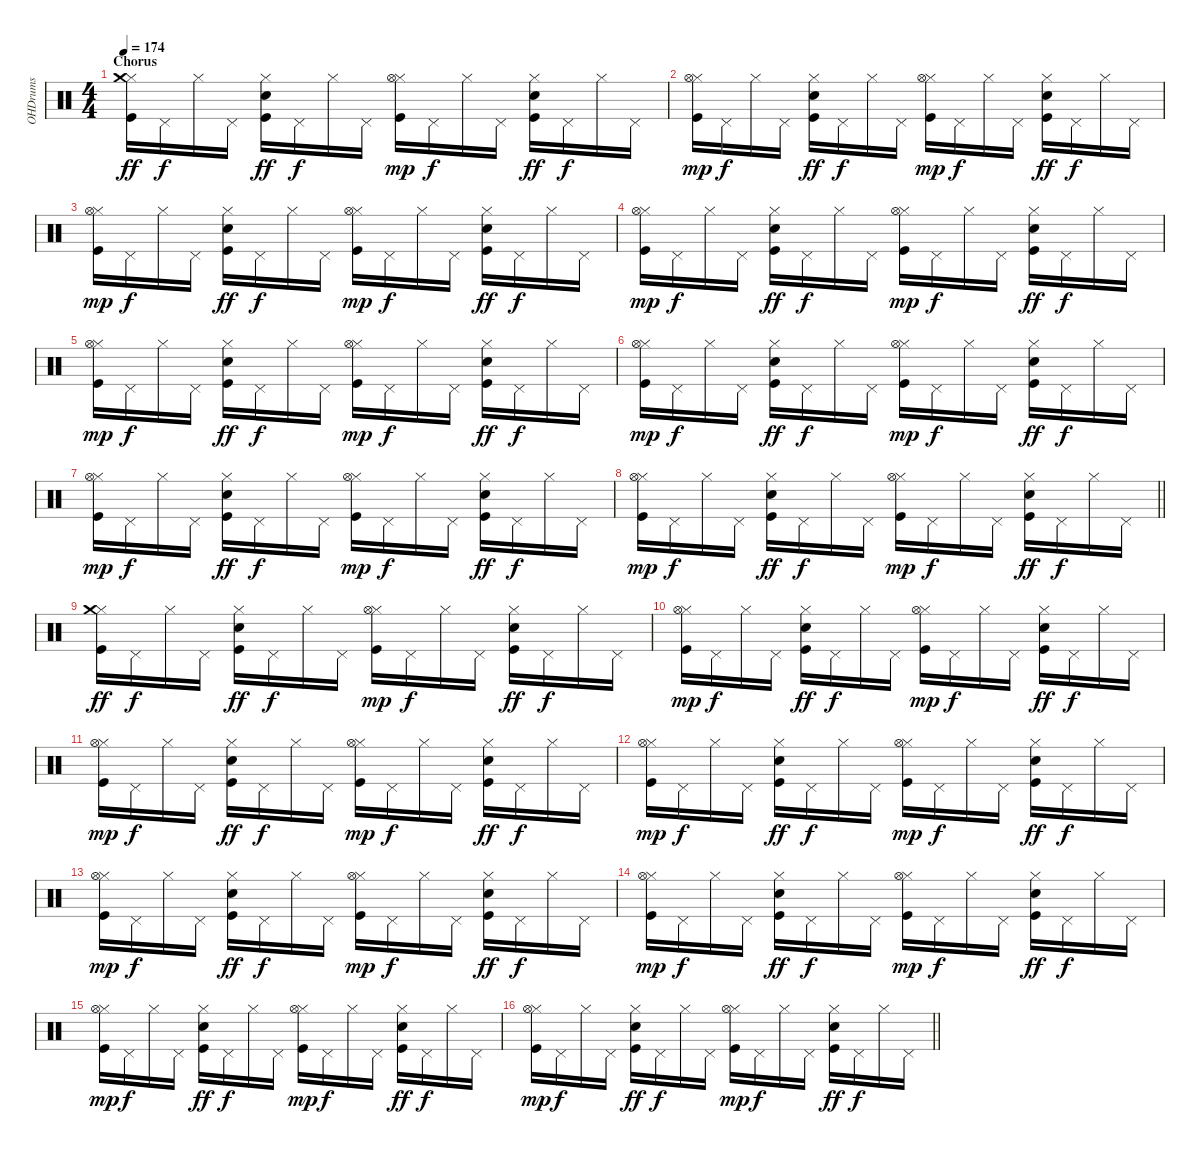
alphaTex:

\track ("OHDrums" "OHDrums") {instrument percussion}
\staff {score}
\articulation defaults
\ts (4 4)
\section ("" "Chorus")
\tempo 174
\clef neutral
\ks c
("Kick (hit)" "Hi-Hat (closed)" "Crash medium (hit)").16{dy ff} "Pedal Hi-Hat (hit)".16{dy f} "Hi-Hat (closed)".16 "Pedal Hi-Hat (hit)".16 ("Kick (hit)" "Electric Snare (hit)" "Hi-Hat (closed)").16{dy ff} "Pedal Hi-Hat (hit)".16{dy f} "Hi-Hat (closed)".16 "Pedal Hi-Hat (hit)".16 ("Kick (hit)" "Hi-Hat (closed)" "Hi-Hat (open)").16{dy mp} "Pedal Hi-Hat (hit)".16{dy f} "Hi-Hat (closed)".16 "Pedal Hi-Hat (hit)".16 ("Kick (hit)" "Electric Snare (hit)" "Hi-Hat (closed)").16{dy ff} "Pedal Hi-Hat (hit)".16{dy f} "Hi-Hat (closed)".16 "Pedal Hi-Hat (hit)".16 |
("Kick (hit)" "Hi-Hat (closed)" "Hi-Hat (open)").16{dy mp} "Pedal Hi-Hat (hit)".16{dy f} "Hi-Hat (closed)".16 "Pedal Hi-Hat (hit)".16 ("Kick (hit)" "Electric Snare (hit)" "Hi-Hat (closed)").16{dy ff} "Pedal Hi-Hat (hit)".16{dy f} "Hi-Hat (closed)".16 "Pedal Hi-Hat (hit)".16 ("Kick (hit)" "Hi-Hat (closed)" "Hi-Hat (open)").16{dy mp} "Pedal Hi-Hat (hit)".16{dy f} "Hi-Hat (closed)".16 "Pedal Hi-Hat (hit)".16 ("Kick (hit)" "Electric Snare (hit)" "Hi-Hat (closed)").16{dy ff} "Pedal Hi-Hat (hit)".16{dy f} "Hi-Hat (closed)".16 "Pedal Hi-Hat (hit)".16 |
("Kick (hit)" "Hi-Hat (closed)" "Hi-Hat (open)").16{dy mp} "Pedal Hi-Hat (hit)".16{dy f} "Hi-Hat (closed)".16 "Pedal Hi-Hat (hit)".16 ("Kick (hit)" "Electric Snare (hit)" "Hi-Hat (closed)").16{dy ff} "Pedal Hi-Hat (hit)".16{dy f} "Hi-Hat (closed)".16 "Pedal Hi-Hat (hit)".16 ("Kick (hit)" "Hi-Hat (closed)" "Hi-Hat (open)").16{dy mp} "Pedal Hi-Hat (hit)".16{dy f} "Hi-Hat (closed)".16 "Pedal Hi-Hat (hit)".16 ("Kick (hit)" "Electric Snare (hit)" "Hi-Hat (closed)").16{dy ff} "Pedal Hi-Hat (hit)".16{dy f} "Hi-Hat (closed)".16 "Pedal Hi-Hat (hit)".16 |
("Kick (hit)" "Hi-Hat (closed)" "Hi-Hat (open)").16{dy mp} "Pedal Hi-Hat (hit)".16{dy f} "Hi-Hat (closed)".16 "Pedal Hi-Hat (hit)".16 ("Kick (hit)" "Electric Snare (hit)" "Hi-Hat (closed)").16{dy ff} "Pedal Hi-Hat (hit)".16{dy f} "Hi-Hat (closed)".16 "Pedal Hi-Hat (hit)".16 ("Kick (hit)" "Hi-Hat (closed)" "Hi-Hat (open)").16{dy mp} "Pedal Hi-Hat (hit)".16{dy f} "Hi-Hat (closed)".16 "Pedal Hi-Hat (hit)".16 ("Kick (hit)" "Electric Snare (hit)" "Hi-Hat (closed)").16{dy ff} "Pedal Hi-Hat (hit)".16{dy f} "Hi-Hat (closed)".16 "Pedal Hi-Hat (hit)".16 |
("Kick (hit)" "Hi-Hat (closed)" "Hi-Hat (open)").16{dy mp} "Pedal Hi-Hat (hit)".16{dy f} "Hi-Hat (closed)".16 "Pedal Hi-Hat (hit)".16 ("Kick (hit)" "Electric Snare (hit)" "Hi-Hat (closed)").16{dy ff} "Pedal Hi-Hat (hit)".16{dy f} "Hi-Hat (closed)".16 "Pedal Hi-Hat (hit)".16 ("Kick (hit)" "Hi-Hat (closed)" "Hi-Hat (open)").16{dy mp} "Pedal Hi-Hat (hit)".16{dy f} "Hi-Hat (closed)".16 "Pedal Hi-Hat (hit)".16 ("Kick (hit)" "Electric Snare (hit)" "Hi-Hat (closed)").16{dy ff} "Pedal Hi-Hat (hit)".16{dy f} "Hi-Hat (closed)".16 "Pedal Hi-Hat (hit)".16 |
("Kick (hit)" "Hi-Hat (closed)" "Hi-Hat (open)").16{dy mp} "Pedal Hi-Hat (hit)".16{dy f} "Hi-Hat (closed)".16 "Pedal Hi-Hat (hit)".16 ("Kick (hit)" "Electric Snare (hit)" "Hi-Hat (closed)").16{dy ff} "Pedal Hi-Hat (hit)".16{dy f} "Hi-Hat (closed)".16 "Pedal Hi-Hat (hit)".16 ("Kick (hit)" "Hi-Hat (closed)" "Hi-Hat (open)").16{dy mp} "Pedal Hi-Hat (hit)".16{dy f} "Hi-Hat (closed)".16 "Pedal Hi-Hat (hit)".16 ("Kick (hit)" "Electric Snare (hit)" "Hi-Hat (closed)").16{dy ff} "Pedal Hi-Hat (hit)".16{dy f} "Hi-Hat (closed)".16 "Pedal Hi-Hat (hit)".16 |
("Kick (hit)" "Hi-Hat (closed)" "Hi-Hat (open)").16{dy mp} "Pedal Hi-Hat (hit)".16{dy f} "Hi-Hat (closed)".16 "Pedal Hi-Hat (hit)".16 ("Kick (hit)" "Electric Snare (hit)" "Hi-Hat (closed)").16{dy ff} "Pedal Hi-Hat (hit)".16{dy f} "Hi-Hat (closed)".16 "Pedal Hi-Hat (hit)".16 ("Kick (hit)" "Hi-Hat (closed)" "Hi-Hat (open)").16{dy mp} "Pedal Hi-Hat (hit)".16{dy f} "Hi-Hat (closed)".16 "Pedal Hi-Hat (hit)".16 ("Kick (hit)" "Electric Snare (hit)" "Hi-Hat (closed)").16{dy ff} "Pedal Hi-Hat (hit)".16{dy f} "Hi-Hat (closed)".16 "Pedal Hi-Hat (hit)".16 |
\barLineRight lightlight
("Kick (hit)" "Hi-Hat (closed)" "Hi-Hat (open)").16{dy mp} "Pedal Hi-Hat (hit)".16{dy f} "Hi-Hat (closed)".16 "Pedal Hi-Hat (hit)".16 ("Kick (hit)" "Electric Snare (hit)" "Hi-Hat (closed)").16{dy ff} "Pedal Hi-Hat (hit)".16{dy f} "Hi-Hat (closed)".16 "Pedal Hi-Hat (hit)".16 ("Kick (hit)" "Hi-Hat (closed)" "Hi-Hat (open)").16{dy mp} "Pedal Hi-Hat (hit)".16{dy f} "Hi-Hat (closed)".16 "Pedal Hi-Hat (hit)".16 ("Kick (hit)" "Electric Snare (hit)" "Hi-Hat (closed)").16{dy ff} "Pedal Hi-Hat (hit)".16{dy f} "Hi-Hat (closed)".16 "Pedal Hi-Hat (hit)".16 |
("Kick (hit)" "Hi-Hat (closed)" "Crash medium (hit)").16{dy ff} "Pedal Hi-Hat (hit)".16{dy f} "Hi-Hat (closed)".16 "Pedal Hi-Hat (hit)".16 ("Kick (hit)" "Electric Snare (hit)" "Hi-Hat (closed)").16{dy ff} "Pedal Hi-Hat (hit)".16{dy f} "Hi-Hat (closed)".16 "Pedal Hi-Hat (hit)".16 ("Kick (hit)" "Hi-Hat (closed)" "Hi-Hat (open)").16{dy mp} "Pedal Hi-Hat (hit)".16{dy f} "Hi-Hat (closed)".16 "Pedal Hi-Hat (hit)".16 ("Kick (hit)" "Electric Snare (hit)" "Hi-Hat (closed)").16{dy ff} "Pedal Hi-Hat (hit)".16{dy f} "Hi-Hat (closed)".16 "Pedal Hi-Hat (hit)".16 |
("Kick (hit)" "Hi-Hat (closed)" "Hi-Hat (open)").16{dy mp} "Pedal Hi-Hat (hit)".16{dy f} "Hi-Hat (closed)".16 "Pedal Hi-Hat (hit)".16 ("Kick (hit)" "Electric Snare (hit)" "Hi-Hat (closed)").16{dy ff} "Pedal Hi-Hat (hit)".16{dy f} "Hi-Hat (closed)".16 "Pedal Hi-Hat (hit)".16 ("Kick (hit)" "Hi-Hat (closed)" "Hi-Hat (open)").16{dy mp} "Pedal Hi-Hat (hit)".16{dy f} "Hi-Hat (closed)".16 "Pedal Hi-Hat (hit)".16 ("Kick (hit)" "Electric Snare (hit)" "Hi-Hat (closed)").16{dy ff} "Pedal Hi-Hat (hit)".16{dy f} "Hi-Hat (closed)".16 "Pedal Hi-Hat (hit)".16 |
("Kick (hit)" "Hi-Hat (closed)" "Hi-Hat (open)").16{dy mp} "Pedal Hi-Hat (hit)".16{dy f} "Hi-Hat (closed)".16 "Pedal Hi-Hat (hit)".16 ("Kick (hit)" "Electric Snare (hit)" "Hi-Hat (closed)").16{dy ff} "Pedal Hi-Hat (hit)".16{dy f} "Hi-Hat (closed)".16 "Pedal Hi-Hat (hit)".16 ("Kick (hit)" "Hi-Hat (closed)" "Hi-Hat (open)").16{dy mp} "Pedal Hi-Hat (hit)".16{dy f} "Hi-Hat (closed)".16 "Pedal Hi-Hat (hit)".16 ("Kick (hit)" "Electric Snare (hit)" "Hi-Hat (closed)").16{dy ff} "Pedal Hi-Hat (hit)".16{dy f} "Hi-Hat (closed)".16 "Pedal Hi-Hat (hit)".16 |
("Kick (hit)" "Hi-Hat (closed)" "Hi-Hat (open)").16{dy mp} "Pedal Hi-Hat (hit)".16{dy f} "Hi-Hat (closed)".16 "Pedal Hi-Hat (hit)".16 ("Kick (hit)" "Electric Snare (hit)" "Hi-Hat (closed)").16{dy ff} "Pedal Hi-Hat (hit)".16{dy f} "Hi-Hat (closed)".16 "Pedal Hi-Hat (hit)".16 ("Kick (hit)" "Hi-Hat (closed)" "Hi-Hat (open)").16{dy mp} "Pedal Hi-Hat (hit)".16{dy f} "Hi-Hat (closed)".16 "Pedal Hi-Hat (hit)".16 ("Kick (hit)" "Electric Snare (hit)" "Hi-Hat (closed)").16{dy ff} "Pedal Hi-Hat (hit)".16{dy f} "Hi-Hat (closed)".16 "Pedal Hi-Hat (hit)".16 |
("Kick (hit)" "Hi-Hat (closed)" "Hi-Hat (open)").16{dy mp} "Pedal Hi-Hat (hit)".16{dy f} "Hi-Hat (closed)".16 "Pedal Hi-Hat (hit)".16 ("Kick (hit)" "Electric Snare (hit)" "Hi-Hat (closed)").16{dy ff} "Pedal Hi-Hat (hit)".16{dy f} "Hi-Hat (closed)".16 "Pedal Hi-Hat (hit)".16 ("Kick (hit)" "Hi-Hat (closed)" "Hi-Hat (open)").16{dy mp} "Pedal Hi-Hat (hit)".16{dy f} "Hi-Hat (closed)".16 "Pedal Hi-Hat (hit)".16 ("Kick (hit)" "Electric Snare (hit)" "Hi-Hat (closed)").16{dy ff} "Pedal Hi-Hat (hit)".16{dy f} "Hi-Hat (closed)".16 "Pedal Hi-Hat (hit)".16 |
("Kick (hit)" "Hi-Hat (closed)" "Hi-Hat (open)").16{dy mp} "Pedal Hi-Hat (hit)".16{dy f} "Hi-Hat (closed)".16 "Pedal Hi-Hat (hit)".16 ("Kick (hit)" "Electric Snare (hit)" "Hi-Hat (closed)").16{dy ff} "Pedal Hi-Hat (hit)".16{dy f} "Hi-Hat (closed)".16 "Pedal Hi-Hat (hit)".16 ("Kick (hit)" "Hi-Hat (closed)" "Hi-Hat (open)").16{dy mp} "Pedal Hi-Hat (hit)".16{dy f} "Hi-Hat (closed)".16 "Pedal Hi-Hat (hit)".16 ("Kick (hit)" "Electric Snare (hit)" "Hi-Hat (closed)").16{dy ff} "Pedal Hi-Hat (hit)".16{dy f} "Hi-Hat (closed)".16 "Pedal Hi-Hat (hit)".16 |
("Kick (hit)" "Hi-Hat (closed)" "Hi-Hat (open)").16{dy mp} "Pedal Hi-Hat (hit)".16{dy f} "Hi-Hat (closed)".16 "Pedal Hi-Hat (hit)".16 ("Kick (hit)" "Electric Snare (hit)" "Hi-Hat (closed)").16{dy ff} "Pedal Hi-Hat (hit)".16{dy f} "Hi-Hat (closed)".16 "Pedal Hi-Hat (hit)".16 ("Kick (hit)" "Hi-Hat (closed)" "Hi-Hat (open)").16{dy mp} "Pedal Hi-Hat (hit)".16{dy f} "Hi-Hat (closed)".16 "Pedal Hi-Hat (hit)".16 ("Kick (hit)" "Electric Snare (hit)" "Hi-Hat (closed)").16{dy ff} "Pedal Hi-Hat (hit)".16{dy f} "Hi-Hat (closed)".16 "Pedal Hi-Hat (hit)".16 |
\barLineRight lightlight
("Kick (hit)" "Hi-Hat (closed)" "Hi-Hat (open)").16{dy mp} "Pedal Hi-Hat (hit)".16{dy f} "Hi-Hat (closed)".16 "Pedal Hi-Hat (hit)".16 ("Kick (hit)" "Electric Snare (hit)" "Hi-Hat (closed)").16{dy ff} "Pedal Hi-Hat (hit)".16{dy f} "Hi-Hat (closed)".16 "Pedal Hi-Hat (hit)".16 ("Kick (hit)" "Hi-Hat (closed)" "Hi-Hat (open)").16{dy mp} "Pedal Hi-Hat (hit)".16{dy f} "Hi-Hat (closed)".16 "Pedal Hi-Hat (hit)".16 ("Kick (hit)" "Electric Snare (hit)" "Hi-Hat (closed)").16{dy ff} "Pedal Hi-Hat (hit)".16{dy f} "Hi-Hat (closed)".16 "Pedal Hi-Hat (hit)".16
